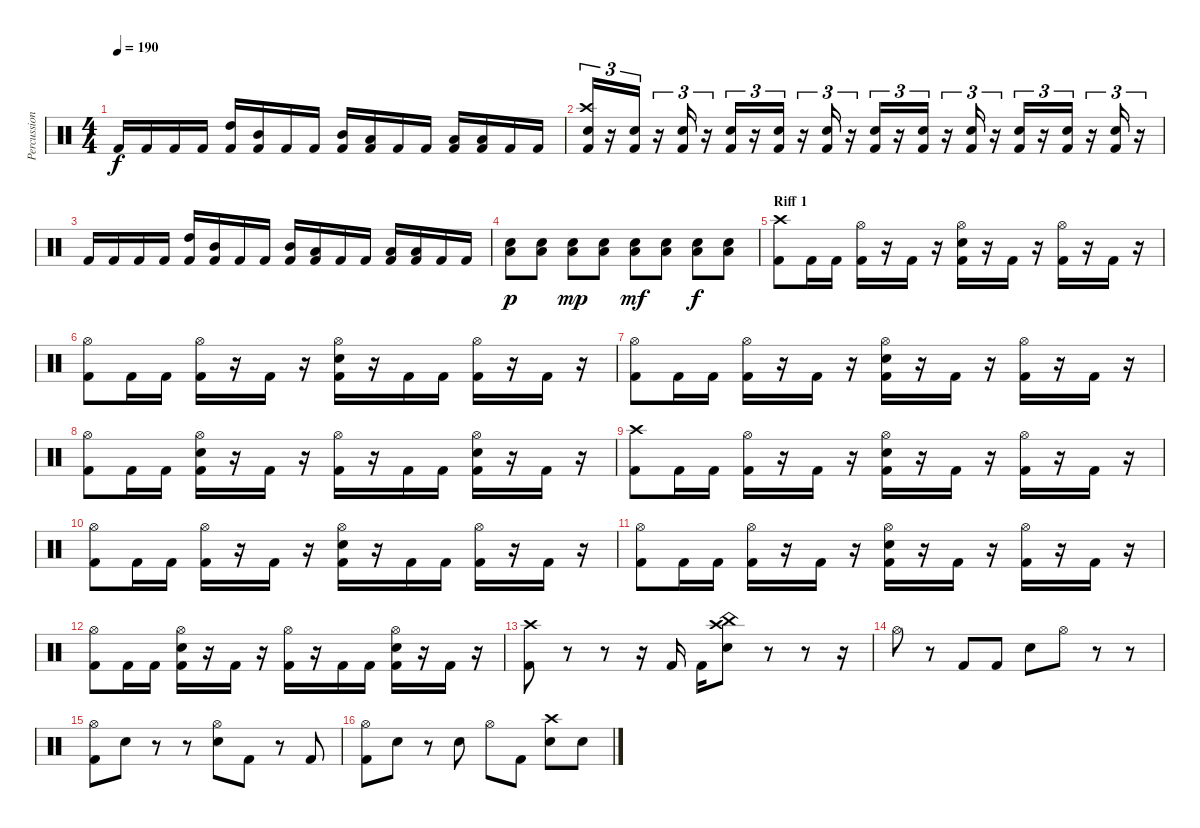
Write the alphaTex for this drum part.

\track ("Percussion" "Percussion") {instrument percussion}
\staff {score}
\articulation defaults
\ts (4 4)
\tempo 190
\clef neutral
\ks c "Kick (hit) 2".16{dy f} "Kick (hit) 2".16 "Kick (hit) 2".16 "Kick (hit) 2".16
("High Tom (hit)" "Kick (hit) 2").16 ("Mid Tom (hit)" "Kick (hit) 2").16 "Kick (hit) 2".16 "Kick (hit) 2".16 ("Mid Tom (hit)" "Kick (hit) 2").16 ("Low Tom (hit)" "Kick (hit) 2").16 "Kick (hit) 2".16 "Kick (hit) 2".16 ("Low Tom (hit)" "Kick (hit) 2").16 ("Low Floor Tom (hit)" "Kick (hit) 2").16 "Kick (hit) 2".16 "Kick (hit) 2".16 |
("Crash high (hit)" "Electric Snare (hit)" "Kick (hit) 2").16{tu (3 2)} r.16{tu (3 2)} ("Electric Snare (hit)" "Kick (hit) 2").16{tu (3 2)} r.16{tu (3 2)} ("Electric Snare (hit)" "Kick (hit) 2").16{tu (3 2)} r.16{tu (3 2)} ("Electric Snare (hit)" "Kick (hit) 2").16{tu (3 2)} r.16{tu (3 2)} ("Electric Snare (hit)" "Kick (hit) 2").16{tu (3 2)} r.16{tu (3 2)} ("Electric Snare (hit)" "Kick (hit) 2").16{tu (3 2)} r.16{tu (3 2)} ("Electric Snare (hit)" "Kick (hit) 2").16{tu (3 2)} r.16{tu (3 2)} ("Electric Snare (hit)" "Kick (hit) 2").16{tu (3 2)} r.16{tu (3 2)} ("Electric Snare (hit)" "Kick (hit) 2").16{tu (3 2)} r.16{tu (3 2)} ("Electric Snare (hit)" "Kick (hit) 2").16{tu (3 2)} r.16{tu (3 2)} ("Electric Snare (hit)" "Kick (hit) 2").16{tu (3 2)} r.16{tu (3 2)} ("Electric Snare (hit)" "Kick (hit) 2").16{tu (3 2)} r.16{tu (3 2)} |
"Kick (hit) 2".16 "Kick (hit) 2".16 "Kick (hit) 2".16 "Kick (hit) 2".16 ("High Tom (hit)" "Kick (hit) 2").16 ("Mid Tom (hit)" "Kick (hit) 2").16 "Kick (hit) 2".16 "Kick (hit) 2".16 ("Mid Tom (hit)" "Kick (hit) 2").16 ("Low Tom (hit)" "Kick (hit) 2").16 "Kick (hit) 2".16 "Kick (hit) 2".16 ("Low Tom (hit)" "Kick (hit) 2").16 ("Low Floor Tom (hit)" "Kick (hit) 2").16 "Kick (hit) 2".16 "Kick (hit) 2".16 |
("Electric Snare (hit)" "Low Floor Tom (hit)").8{dy p} ("Electric Snare (hit)" "Low Floor Tom (hit)").8 ("Electric Snare (hit)" "Low Floor Tom (hit)").8{dy mp} ("Electric Snare (hit)" "Low Floor Tom (hit)").8 ("Electric Snare (hit)" "Low Floor Tom (hit)").8{dy mf} ("Electric Snare (hit)" "Low Floor Tom (hit)").8 ("Electric Snare (hit)" "Low Floor Tom (hit)").8{dy f} ("Electric Snare (hit)" "Low Floor Tom (hit)").8 |
\section ("" "Riff 1")
("Crash high (hit)" "Kick (hit) 2").8 "Kick (hit) 2".16 "Kick (hit) 2".16 ("Hi-Hat (open)" "Kick (hit) 2").16 r.16 "Kick (hit) 2".16 r.16 ("Hi-Hat (open)" "Electric Snare (hit)" "Kick (hit) 2").16 r.16 "Kick (hit) 2".16 r.16 ("Hi-Hat (open)" "Kick (hit) 2").16 r.16 "Kick (hit) 2".16 r.16 |
("Hi-Hat (open)" "Kick (hit) 2").8 "Kick (hit) 2".16 "Kick (hit) 2".16 ("Hi-Hat (open)" "Kick (hit) 2").16 r.16 "Kick (hit) 2".16 r.16 ("Hi-Hat (open)" "Electric Snare (hit)" "Kick (hit) 2").16 r.16 "Kick (hit) 2".16 "Kick (hit) 2".16 ("Hi-Hat (open)" "Kick (hit) 2").16 r.16 "Kick (hit) 2".16 r.16 |
("Hi-Hat (open)" "Kick (hit) 2").8 "Kick (hit) 2".16 "Kick (hit) 2".16 ("Hi-Hat (open)" "Kick (hit) 2").16 r.16 "Kick (hit) 2".16 r.16 ("Hi-Hat (open)" "Electric Snare (hit)" "Kick (hit) 2").16 r.16 "Kick (hit) 2".16 r.16 ("Hi-Hat (open)" "Kick (hit) 2").16 r.16 "Kick (hit) 2".16 r.16 |
("Hi-Hat (open)" "Kick (hit) 2").8 "Kick (hit) 2".16 "Kick (hit) 2".16 ("Hi-Hat (open)" "Electric Snare (hit)" "Kick (hit) 2").16 r.16 "Kick (hit) 2".16 r.16 ("Hi-Hat (open)" "Kick (hit) 2").16 r.16 "Kick (hit) 2".16 "Kick (hit) 2".16 ("Hi-Hat (open)" "Electric Snare (hit)" "Kick (hit) 2").16 r.16 "Kick (hit) 2".16 r.16 |
("Crash high (hit)" "Kick (hit) 2").8 "Kick (hit) 2".16 "Kick (hit) 2".16 ("Hi-Hat (open)" "Kick (hit) 2").16 r.16 "Kick (hit) 2".16 r.16 ("Hi-Hat (open)" "Electric Snare (hit)" "Kick (hit) 2").16 r.16 "Kick (hit) 2".16 r.16 ("Hi-Hat (open)" "Kick (hit) 2").16 r.16 "Kick (hit) 2".16 r.16 |
("Hi-Hat (open)" "Kick (hit) 2").8 "Kick (hit) 2".16 "Kick (hit) 2".16 ("Hi-Hat (open)" "Kick (hit) 2").16 r.16 "Kick (hit) 2".16 r.16 ("Hi-Hat (open)" "Electric Snare (hit)" "Kick (hit) 2").16 r.16 "Kick (hit) 2".16 "Kick (hit) 2".16 ("Hi-Hat (open)" "Kick (hit) 2").16 r.16 "Kick (hit) 2".16 r.16 |
("Hi-Hat (open)" "Kick (hit) 2").8 "Kick (hit) 2".16 "Kick (hit) 2".16 ("Hi-Hat (open)" "Kick (hit) 2").16 r.16 "Kick (hit) 2".16 r.16 ("Hi-Hat (open)" "Electric Snare (hit)" "Kick (hit) 2").16 r.16 "Kick (hit) 2".16 r.16 ("Hi-Hat (open)" "Kick (hit) 2").16 r.16 "Kick (hit) 2".16 r.16 |
("Hi-Hat (open)" "Kick (hit) 2").8 "Kick (hit) 2".16 "Kick (hit) 2".16 ("Hi-Hat (open)" "Electric Snare (hit)" "Kick (hit) 2").16 r.16 "Kick (hit) 2".16 r.16 ("Hi-Hat (open)" "Kick (hit) 2").16 r.16 "Kick (hit) 2".16 "Kick (hit) 2".16 ("Hi-Hat (open)" "Electric Snare (hit)" "Kick (hit) 2").16 r.16 "Kick (hit) 2".16 r.16 |
("Crash high (hit)" "Kick (hit) 2").8 r.8 r.8 r.16 "Kick (hit) 2".16 "Kick (hit) 2".16 ("China (hit)" "Crash high (hit)" "Electric Snare (hit)").8 r.8 r.8 r.16 |
"Hi-Hat (open)".8 r.8 "Kick (hit) 2".8 "Kick (hit) 2".8 "Electric Snare (hit)".8 "Hi-Hat (open)".8 r.8 r.8 |
("Hi-Hat (open)" "Kick (hit) 2").8 "Electric Snare (hit)".8 r.8 r.8 ("Hi-Hat (open)" "Electric Snare (hit)").8 "Kick (hit) 2".8 r.8 "Kick (hit) 2".8 |
("Hi-Hat (open)" "Kick (hit) 2").8 "Electric Snare (hit)".8 r.8 "Electric Snare (hit)".8 "Hi-Hat (open)".8 "Kick (hit) 2".8 ("Crash high (hit)" "Electric Snare (hit)").8 "Electric Snare (hit)".8
